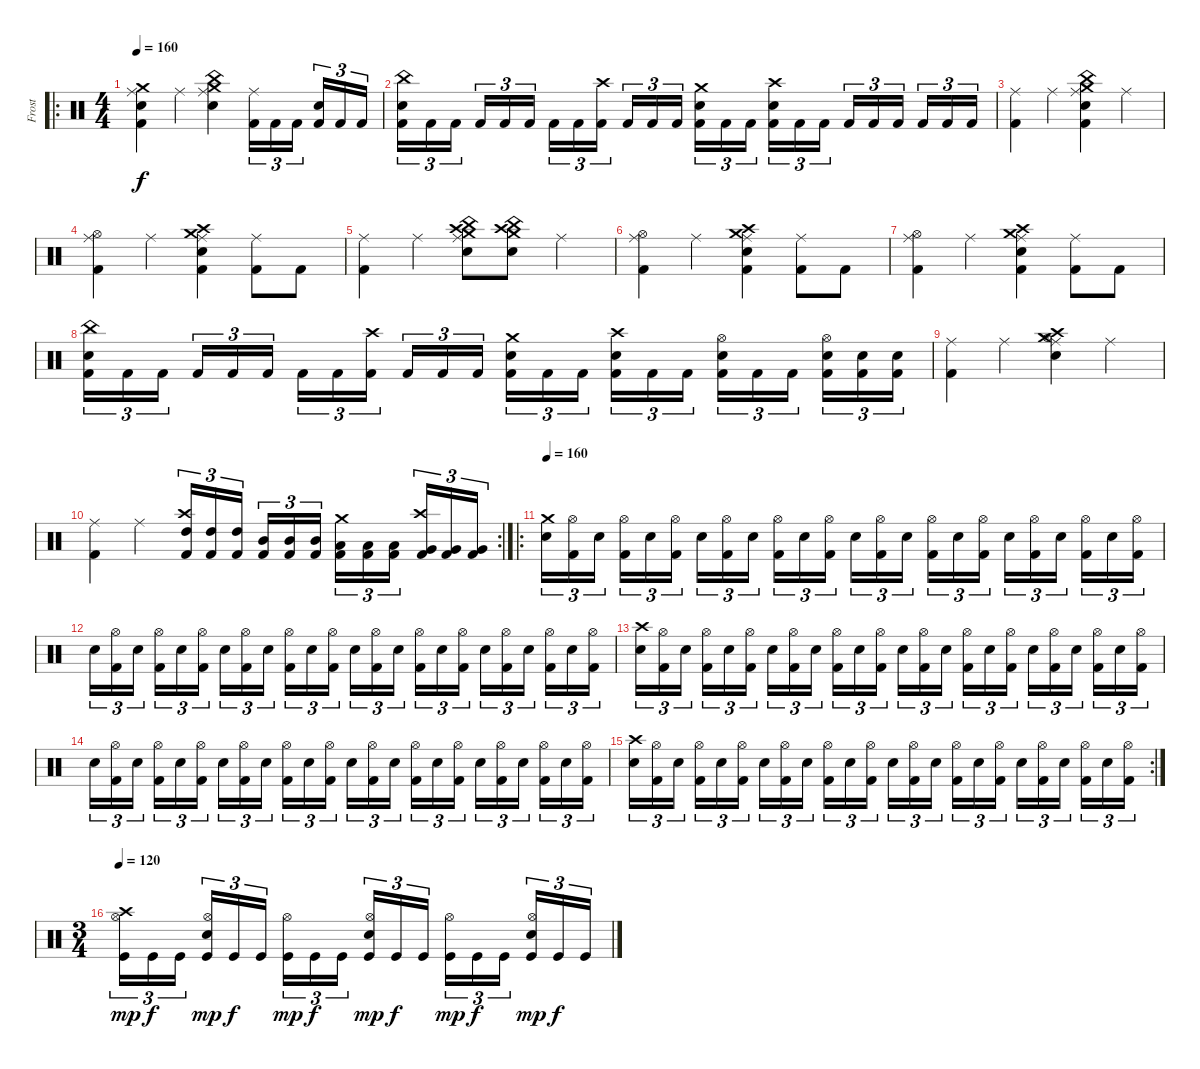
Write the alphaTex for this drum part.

\track ("Frost" "Frost") {instrument percussion}
\staff {score}
\articulation defaults
\ro
\ts (4 4)
\tempo 160
\clef neutral
\ks c
("Crash medium (hit)" "Electric Snare (hit)" "Kick (hit) 2" "Ride (middle)").4{dy f} "Ride (middle)".4 ("China (hit)" "Crash medium (hit)" "Electric Snare (hit)" "Ride (middle)").4 ("Kick (hit) 2" "Ride (middle)").16{tu (3 2)} "Kick (hit) 2".16{tu (3 2)} "Kick (hit) 2".16{tu (3 2)} ("Electric Snare (hit)" "Kick (hit) 2").16{tu (3 2)} "Kick (hit) 2".16{tu (3 2)} "Kick (hit) 2".16{tu (3 2)} |
("Kick (hit) 2" "Electric Snare (hit)" "China (hit)").16{tu (3 2)} "Kick (hit) 2".16{tu (3 2)} "Kick (hit) 2".16{tu (3 2)} "Kick (hit) 2".16{tu (3 2)} "Kick (hit) 2".16{tu (3 2)} "Kick (hit) 2".16{tu (3 2)} "Kick (hit) 2".16{tu (3 2)} "Kick (hit) 2".16{tu (3 2)} ("Kick (hit) 2" "Crash high (hit)").16{tu (3 2)} "Kick (hit) 2".16{tu (3 2)} "Kick (hit) 2".16{tu (3 2)} "Kick (hit) 2".16{tu (3 2)} ("Kick (hit) 2" "Electric Snare (hit)" "Crash medium (hit)").16{tu (3 2)} "Kick (hit) 2".16{tu (3 2)} "Kick (hit) 2".16{tu (3 2)} ("Kick (hit) 2" "Electric Snare (hit)" "Crash high (hit)").16{tu (3 2)} "Kick (hit) 2".16{tu (3 2)} "Kick (hit) 2".16{tu (3 2)} "Kick (hit) 2".16{tu (3 2)} "Kick (hit) 2".16{tu (3 2)} "Kick (hit) 2".16{tu (3 2)} "Kick (hit) 2".16{tu (3 2)} "Kick (hit) 2".16{tu (3 2)} "Kick (hit) 2".16{tu (3 2)} |
("Kick (hit) 2" "Ride (middle)").4 "Ride (middle)".4 ("Crash medium (hit)" "China (hit)" "Electric Snare (hit)" "Kick (hit) 2" "Ride (middle)").4 "Ride (middle)".4 |
("Hi-Hat (open)" "Kick (hit) 2" "Ride (middle)").4 "Ride (middle)".4 ("Crash medium (hit)" "Crash high (hit)" "Electric Snare (hit)" "Kick (hit) 2" "Ride (middle)").4 ("Kick (hit) 2" "Ride (middle)").8 "Kick (hit) 2".8 |
("Kick (hit) 2" "Ride (middle)").4 "Ride (middle)".4 ("Crash medium (hit)" "China (hit)" "Electric Snare (hit)" "Crash high (hit)" "Ride (middle)").8 ("Crash medium (hit)" "China (hit)" "Electric Snare (hit)" "Crash high (hit)").8 "Ride (middle)".4 |
("Hi-Hat (open)" "Kick (hit) 2" "Ride (middle)").4 "Ride (middle)".4 ("Crash medium (hit)" "Crash high (hit)" "Electric Snare (hit)" "Kick (hit) 2" "Ride (middle)").4 ("Kick (hit) 2" "Ride (middle)").8 "Kick (hit) 2".8 |
("Hi-Hat (open)" "Kick (hit) 2" "Ride (middle)").4 "Ride (middle)".4 ("Crash medium (hit)" "Crash high (hit)" "Electric Snare (hit)" "Kick (hit) 2" "Ride (middle)").4 ("Kick (hit) 2" "Ride (middle)").8 "Kick (hit) 2".8 |
("Kick (hit) 2" "Electric Snare (hit)" "China (hit)").16{tu (3 2)} "Kick (hit) 2".16{tu (3 2)} "Kick (hit) 2".16{tu (3 2)} "Kick (hit) 2".16{tu (3 2)} "Kick (hit) 2".16{tu (3 2)} "Kick (hit) 2".16{tu (3 2)} "Kick (hit) 2".16{tu (3 2)} "Kick (hit) 2".16{tu (3 2)} ("Kick (hit) 2" "Crash high (hit)").16{tu (3 2)} "Kick (hit) 2".16{tu (3 2)} "Kick (hit) 2".16{tu (3 2)} "Kick (hit) 2".16{tu (3 2)} ("Kick (hit) 2" "Electric Snare (hit)" "Crash medium (hit)").16{tu (3 2)} "Kick (hit) 2".16{tu (3 2)} "Kick (hit) 2".16{tu (3 2)} ("Kick (hit) 2" "Electric Snare (hit)" "Crash high (hit)").16{tu (3 2)} "Kick (hit) 2".16{tu (3 2)} "Kick (hit) 2".16{tu (3 2)} ("Kick (hit) 2" "Electric Snare (hit)" "Hi-Hat (open)").16{tu (3 2)} "Kick (hit) 2".16{tu (3 2)} "Kick (hit) 2".16{tu (3 2)} ("Kick (hit) 2" "Electric Snare (hit)" "Hi-Hat (open)").16{tu (3 2)} ("Kick (hit) 2" "Electric Snare (hit)").16{tu (3 2)} ("Kick (hit) 2" "Electric Snare (hit)").16{tu (3 2)} |
("Kick (hit) 2" "Ride (middle)").4 "Ride (middle)".4 ("Crash medium (hit)" "Hi-Hat (open)" "Electric Snare (hit)" "Crash high (hit)" "Ride (middle)").4 "Ride (middle)".4 |
\rc 2
("Kick (hit) 2" "Ride (middle)").4 "Ride (middle)".4 ("Crash high (hit)" "High Tom (hit)" "Kick (hit) 2").16{tu (3 2)} ("High Tom (hit)" "Kick (hit) 2").16{tu (3 2)} ("High Tom (hit)" "Kick (hit) 2").16{tu (3 2)} ("Mid Tom (hit)" "Kick (hit) 2").16{tu (3 2)} ("Mid Tom (hit)" "Kick (hit) 2").16{tu (3 2)} ("Mid Tom (hit)" "Kick (hit) 2").16{tu (3 2)} ("Crash medium (hit)" "Low Tom (hit)" "Kick (hit) 2").16{tu (3 2)} ("Low Tom (hit)" "Kick (hit) 2").16{tu (3 2)} ("Low Tom (hit)" "Kick (hit) 2").16{tu (3 2)} ("Crash high (hit)" "Very Low Tom (hit)" "Kick (hit) 2").16{tu (3 2)} ("Very Low Tom (hit)" "Kick (hit) 2").16{tu (3 2)} ("Very Low Tom (hit)" "Kick (hit) 2").16{tu (3 2)} |
\ro
\tempo 120
\tempo 160
("Crash medium (hit)" "Electric Snare (hit)").16{tu (3 2)} ("Hi-Hat (open)" "Kick (hit) 2").16{tu (3 2)} "Electric Snare (hit)".16{tu (3 2)} ("Hi-Hat (open)" "Kick (hit) 2").16{tu (3 2)} "Electric Snare (hit)".16{tu (3 2)} ("Hi-Hat (open)" "Kick (hit) 2").16{tu (3 2)} "Electric Snare (hit)".16{tu (3 2)} ("Hi-Hat (open)" "Kick (hit) 2").16{tu (3 2)} "Electric Snare (hit)".16{tu (3 2)} ("Hi-Hat (open)" "Kick (hit) 2").16{tu (3 2)} "Electric Snare (hit)".16{tu (3 2)} ("Hi-Hat (open)" "Kick (hit) 2").16{tu (3 2)} "Electric Snare (hit)".16{tu (3 2)} ("Hi-Hat (open)" "Kick (hit) 2").16{tu (3 2)} "Electric Snare (hit)".16{tu (3 2)} ("Hi-Hat (open)" "Kick (hit) 2").16{tu (3 2)} "Electric Snare (hit)".16{tu (3 2)} ("Hi-Hat (open)" "Kick (hit) 2").16{tu (3 2)} "Electric Snare (hit)".16{tu (3 2)} ("Hi-Hat (open)" "Kick (hit) 2").16{tu (3 2)} "Electric Snare (hit)".16{tu (3 2)} ("Hi-Hat (open)" "Kick (hit) 2").16{tu (3 2)} "Electric Snare (hit)".16{tu (3 2)} ("Hi-Hat (open)" "Kick (hit) 2").16{tu (3 2)} |
"Electric Snare (hit)".16{tu (3 2)} ("Hi-Hat (open)" "Kick (hit) 2").16{tu (3 2)} "Electric Snare (hit)".16{tu (3 2)} ("Hi-Hat (open)" "Kick (hit) 2").16{tu (3 2)} "Electric Snare (hit)".16{tu (3 2)} ("Hi-Hat (open)" "Kick (hit) 2").16{tu (3 2)} "Electric Snare (hit)".16{tu (3 2)} ("Hi-Hat (open)" "Kick (hit) 2").16{tu (3 2)} "Electric Snare (hit)".16{tu (3 2)} ("Hi-Hat (open)" "Kick (hit) 2").16{tu (3 2)} "Electric Snare (hit)".16{tu (3 2)} ("Hi-Hat (open)" "Kick (hit) 2").16{tu (3 2)} "Electric Snare (hit)".16{tu (3 2)} ("Hi-Hat (open)" "Kick (hit) 2").16{tu (3 2)} "Electric Snare (hit)".16{tu (3 2)} ("Hi-Hat (open)" "Kick (hit) 2").16{tu (3 2)} "Electric Snare (hit)".16{tu (3 2)} ("Hi-Hat (open)" "Kick (hit) 2").16{tu (3 2)} "Electric Snare (hit)".16{tu (3 2)} ("Hi-Hat (open)" "Kick (hit) 2").16{tu (3 2)} "Electric Snare (hit)".16{tu (3 2)} ("Hi-Hat (open)" "Kick (hit) 2").16{tu (3 2)} "Electric Snare (hit)".16{tu (3 2)} ("Hi-Hat (open)" "Kick (hit) 2").16{tu (3 2)} |
("Crash high (hit)" "Electric Snare (hit)").16{tu (3 2)} ("Hi-Hat (open)" "Kick (hit) 2").16{tu (3 2)} "Electric Snare (hit)".16{tu (3 2)} ("Hi-Hat (open)" "Kick (hit) 2").16{tu (3 2)} "Electric Snare (hit)".16{tu (3 2)} ("Hi-Hat (open)" "Kick (hit) 2").16{tu (3 2)} "Electric Snare (hit)".16{tu (3 2)} ("Hi-Hat (open)" "Kick (hit) 2").16{tu (3 2)} "Electric Snare (hit)".16{tu (3 2)} ("Hi-Hat (open)" "Kick (hit) 2").16{tu (3 2)} "Electric Snare (hit)".16{tu (3 2)} ("Hi-Hat (open)" "Kick (hit) 2").16{tu (3 2)} "Electric Snare (hit)".16{tu (3 2)} ("Hi-Hat (open)" "Kick (hit) 2").16{tu (3 2)} "Electric Snare (hit)".16{tu (3 2)} ("Hi-Hat (open)" "Kick (hit) 2").16{tu (3 2)} "Electric Snare (hit)".16{tu (3 2)} ("Hi-Hat (open)" "Kick (hit) 2").16{tu (3 2)} "Electric Snare (hit)".16{tu (3 2)} ("Hi-Hat (open)" "Kick (hit) 2").16{tu (3 2)} "Electric Snare (hit)".16{tu (3 2)} ("Hi-Hat (open)" "Kick (hit) 2").16{tu (3 2)} "Electric Snare (hit)".16{tu (3 2)} ("Hi-Hat (open)" "Kick (hit) 2").16{tu (3 2)} |
"Electric Snare (hit)".16{tu (3 2)} ("Hi-Hat (open)" "Kick (hit) 2").16{tu (3 2)} "Electric Snare (hit)".16{tu (3 2)} ("Hi-Hat (open)" "Kick (hit) 2").16{tu (3 2)} "Electric Snare (hit)".16{tu (3 2)} ("Hi-Hat (open)" "Kick (hit) 2").16{tu (3 2)} "Electric Snare (hit)".16{tu (3 2)} ("Hi-Hat (open)" "Kick (hit) 2").16{tu (3 2)} "Electric Snare (hit)".16{tu (3 2)} ("Hi-Hat (open)" "Kick (hit) 2").16{tu (3 2)} "Electric Snare (hit)".16{tu (3 2)} ("Hi-Hat (open)" "Kick (hit) 2").16{tu (3 2)} "Electric Snare (hit)".16{tu (3 2)} ("Hi-Hat (open)" "Kick (hit) 2").16{tu (3 2)} "Electric Snare (hit)".16{tu (3 2)} ("Hi-Hat (open)" "Kick (hit) 2").16{tu (3 2)} "Electric Snare (hit)".16{tu (3 2)} ("Hi-Hat (open)" "Kick (hit) 2").16{tu (3 2)} "Electric Snare (hit)".16{tu (3 2)} ("Hi-Hat (open)" "Kick (hit) 2").16{tu (3 2)} "Electric Snare (hit)".16{tu (3 2)} ("Hi-Hat (open)" "Kick (hit) 2").16{tu (3 2)} "Electric Snare (hit)".16{tu (3 2)} ("Hi-Hat (open)" "Kick (hit) 2").16{tu (3 2)} |
\rc 2
("Crash high (hit)" "Electric Snare (hit)").16{tu (3 2)} ("Hi-Hat (open)" "Kick (hit) 2").16{tu (3 2)} "Electric Snare (hit)".16{tu (3 2)} ("Hi-Hat (open)" "Kick (hit) 2").16{tu (3 2)} "Electric Snare (hit)".16{tu (3 2)} ("Hi-Hat (open)" "Kick (hit) 2").16{tu (3 2)} "Electric Snare (hit)".16{tu (3 2)} ("Hi-Hat (open)" "Kick (hit) 2").16{tu (3 2)} "Electric Snare (hit)".16{tu (3 2)} ("Hi-Hat (open)" "Kick (hit) 2").16{tu (3 2)} "Electric Snare (hit)".16{tu (3 2)} ("Hi-Hat (open)" "Kick (hit) 2").16{tu (3 2)} "Electric Snare (hit)".16{tu (3 2)} ("Hi-Hat (open)" "Kick (hit) 2").16{tu (3 2)} "Electric Snare (hit)".16{tu (3 2)} ("Hi-Hat (open)" "Kick (hit) 2").16{tu (3 2)} "Electric Snare (hit)".16{tu (3 2)} ("Hi-Hat (open)" "Kick (hit) 2").16{tu (3 2)} "Electric Snare (hit)".16{tu (3 2)} ("Hi-Hat (open)" "Kick (hit) 2").16{tu (3 2)} "Electric Snare (hit)".16{tu (3 2)} ("Hi-Hat (open)" "Kick (hit) 2").16{tu (3 2)} "Electric Snare (hit)".16{tu (3 2)} ("Hi-Hat (open)" "Kick (hit) 2").16{tu (3 2)} |
\ts (3 4)
\tempo 120
("Crash high (hit)" "Hi-Hat (open)" "Kick (hit)").16{tu (3 2) dy mp} "Kick (hit)".16{tu (3 2) dy f} "Kick (hit)".16{tu (3 2)} ("Hi-Hat (open)" "Electric Snare (hit)" "Kick (hit)").16{tu (3 2) dy mp} "Kick (hit)".16{tu (3 2) dy f} "Kick (hit)".16{tu (3 2)} ("Hi-Hat (open)" "Kick (hit)").16{tu (3 2) dy mp} "Kick (hit)".16{tu (3 2) dy f} "Kick (hit)".16{tu (3 2)} ("Hi-Hat (open)" "Electric Snare (hit)" "Kick (hit)").16{tu (3 2) dy mp} "Kick (hit)".16{tu (3 2) dy f} "Kick (hit)".16{tu (3 2)} ("Hi-Hat (open)" "Kick (hit)").16{tu (3 2) dy mp} "Kick (hit)".16{tu (3 2) dy f} "Kick (hit)".16{tu (3 2)} ("Hi-Hat (open)" "Electric Snare (hit)" "Kick (hit)").16{tu (3 2) dy mp} "Kick (hit)".16{tu (3 2) dy f} "Kick (hit)".16{tu (3 2)}
